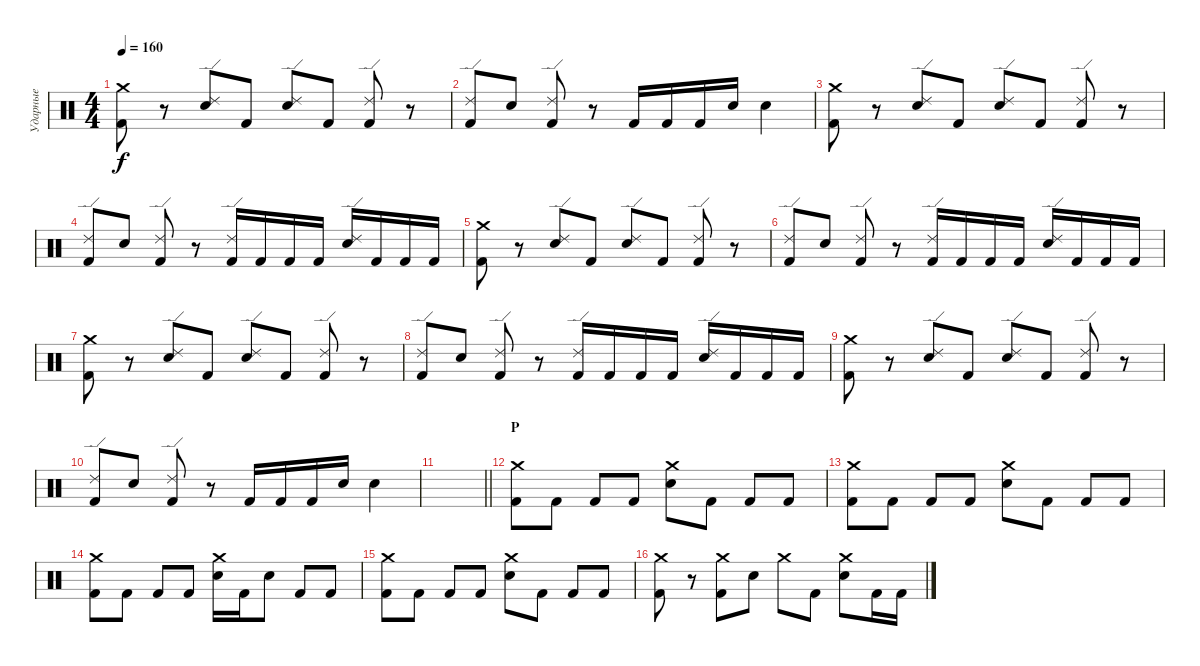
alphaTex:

\track ("Ударные" "Ударные") {instrument percussion}
\staff {score}
\articulation defaults
\ts (4 4)
\tempo 160
\clef neutral
\ks c
("Crash medium (hit)" "Kick (hit) 2").8{dy f} r.8 ("Snare (hit) 2" "Ride (edge) 2").8 "Kick (hit) 2".8 ("Snare (hit) 2" "Ride (edge) 2").8 "Kick (hit) 2".8 ("Kick (hit) 2" "Ride (edge) 2").8 r.8 |
("Kick (hit) 2" "Ride (edge) 2").8 "Snare (hit) 2".8 ("Kick (hit) 2" "Ride (edge) 2").8 r.8 "Kick (hit) 2".16 "Kick (hit) 2".16 "Kick (hit) 2".16 "Snare (hit) 2".16 "Snare (hit) 2".4 |
("Crash medium (hit)" "Kick (hit) 2").8 r.8 ("Snare (hit) 2" "Ride (edge) 2").8 "Kick (hit) 2".8 ("Snare (hit) 2" "Ride (edge) 2").8 "Kick (hit) 2".8 ("Kick (hit) 2" "Ride (edge) 2").8 r.8 |
("Kick (hit) 2" "Ride (edge) 2").8 "Snare (hit) 2".8 ("Kick (hit) 2" "Ride (edge) 2").8 r.8 ("Kick (hit) 2" "Ride (edge) 2").16 "Kick (hit) 2".16 "Kick (hit) 2".16 "Kick (hit) 2".16 ("Snare (hit) 2" "Ride (edge) 2").16 "Kick (hit) 2".16 "Kick (hit) 2".16 "Kick (hit) 2".16 |
("Crash medium (hit)" "Kick (hit) 2").8 r.8 ("Snare (hit) 2" "Ride (edge) 2").8 "Kick (hit) 2".8 ("Snare (hit) 2" "Ride (edge) 2").8 "Kick (hit) 2".8 ("Kick (hit) 2" "Ride (edge) 2").8 r.8 |
("Kick (hit) 2" "Ride (edge) 2").8 "Snare (hit) 2".8 ("Kick (hit) 2" "Ride (edge) 2").8 r.8 ("Kick (hit) 2" "Ride (edge) 2").16 "Kick (hit) 2".16 "Kick (hit) 2".16 "Kick (hit) 2".16 ("Snare (hit) 2" "Ride (edge) 2").16 "Kick (hit) 2".16 "Kick (hit) 2".16 "Kick (hit) 2".16 |
("Crash medium (hit)" "Kick (hit) 2").8 r.8 ("Snare (hit) 2" "Ride (edge) 2").8 "Kick (hit) 2".8 ("Snare (hit) 2" "Ride (edge) 2").8 "Kick (hit) 2".8 ("Kick (hit) 2" "Ride (edge) 2").8 r.8 |
("Kick (hit) 2" "Ride (edge) 2").8 "Snare (hit) 2".8 ("Kick (hit) 2" "Ride (edge) 2").8 r.8 ("Kick (hit) 2" "Ride (edge) 2").16 "Kick (hit) 2".16 "Kick (hit) 2".16 "Kick (hit) 2".16 ("Snare (hit) 2" "Ride (edge) 2").16 "Kick (hit) 2".16 "Kick (hit) 2".16 "Kick (hit) 2".16 |
("Crash medium (hit)" "Kick (hit) 2").8 r.8 ("Snare (hit) 2" "Ride (edge) 2").8 "Kick (hit) 2".8 ("Snare (hit) 2" "Ride (edge) 2").8 "Kick (hit) 2".8 ("Kick (hit) 2" "Ride (edge) 2").8 r.8 |
("Kick (hit) 2" "Ride (edge) 2").8 "Snare (hit) 2".8 ("Kick (hit) 2" "Ride (edge) 2").8 r.8 "Kick (hit) 2".16 "Kick (hit) 2".16 "Kick (hit) 2".16 "Snare (hit) 2".16 "Snare (hit) 2".4 |
\barLineRight lightlight
|
\section ("" "P")
("Kick (hit) 2" "Crash medium (hit)").8 "Kick (hit) 2".8 "Kick (hit) 2".8 "Kick (hit) 2".8 ("Snare (hit) 2" "Crash medium (hit)").8 "Kick (hit) 2".8 "Kick (hit) 2".8 "Kick (hit) 2".8 |
("Kick (hit) 2" "Crash medium (hit)").8 "Kick (hit) 2".8 "Kick (hit) 2".8 "Kick (hit) 2".8 ("Snare (hit) 2" "Crash medium (hit)").8 "Kick (hit) 2".8 "Kick (hit) 2".8 "Kick (hit) 2".8 |
("Kick (hit) 2" "Crash medium (hit)").8 "Kick (hit) 2".8 "Kick (hit) 2".8 "Kick (hit) 2".8 ("Snare (hit) 2" "Crash medium (hit)").16 "Kick (hit) 2".16 "Snare (hit) 2".8 "Kick (hit) 2".8 "Kick (hit) 2".8 |
("Kick (hit) 2" "Crash medium (hit)").8 "Kick (hit) 2".8 "Kick (hit) 2".8 "Kick (hit) 2".8 ("Snare (hit) 2" "Crash medium (hit)").8 "Kick (hit) 2".8 "Kick (hit) 2".8 "Kick (hit) 2".8 |
("Kick (hit) 2" "Crash medium (hit)").8 r.8 ("Kick (hit) 2" "Crash medium (hit)").8 "Snare (hit) 2".8 "Crash medium (hit)".8 "Kick (hit) 2".8 ("Snare (hit) 2" "Crash medium (hit)").8 "Kick (hit) 2".16 "Kick (hit) 2".16
